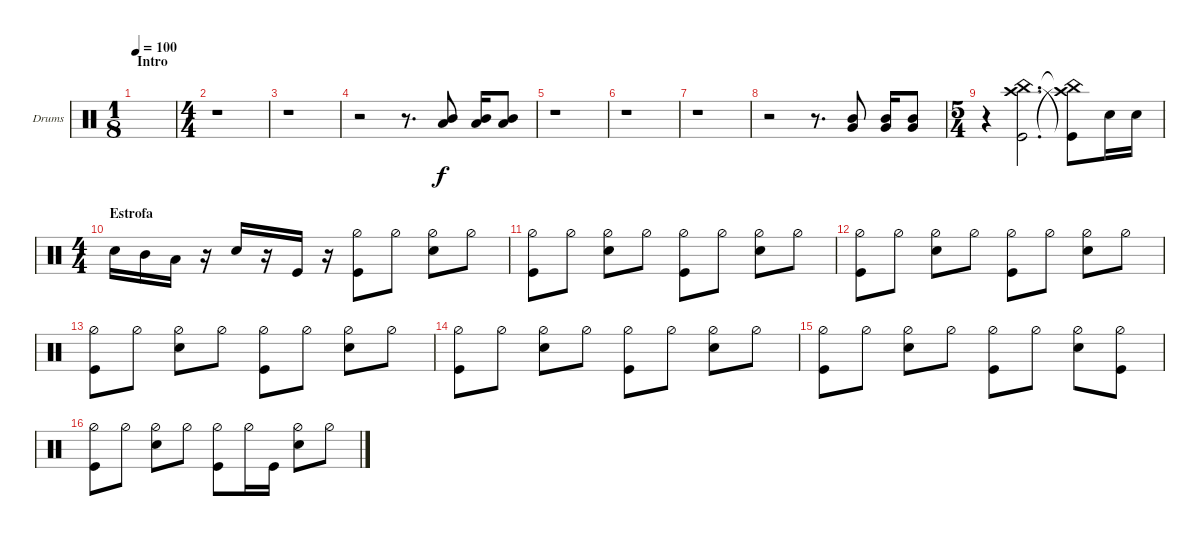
\defaultSystemsLayout 4
\bracketExtendMode groupsimilarinstruments
\firstSystemTrackNameOrientation horizontal
\otherSystemsTrackNameOrientation horizontal
\track ("Drumkit" "Drums") {instrument percussion}
\staff {score}
\articulation defaults
\ts (1 8)
\section ("" "Intro")
\tempo 100
\clef neutral
\ks c
|
\ts (4 4)
r.1 |
r.1 |
r.2 r.8{d} ("Mid Tom (hit)" "Low Tom (hit)").8 ("Mid Tom (hit)" "Low Tom (hit)").16 ("Mid Tom (hit)" "Low Tom (hit)").8 |
r.1 |
r.1 |
r.1 |
r.2 r.8{d} ("Mid Tom (hit)" "Very Low Tom (hit)").8 ("Mid Tom (hit)" "Very Low Tom (hit)").16 ("Mid Tom (hit)" "Very Low Tom (hit)").8 |
\ts (5 4)
r.4 ("Crash high (hit)" "Kick (hit)" "China (hit)").2{d} ("Kick (hit)"{t} "Crash high (hit)"{t} "China (hit)"{t}).8 "Snare (hit) 2".16 "Snare (hit) 2".16 |
\ts (4 4)
\section ("" "Estrofa")
"Snare (hit) 2".16{dy f} "Mid Tom (hit)".16 "Low Tom (hit)".16 r.16 "Snare (hit) 2".16 r.16 "Kick (hit)".16 r.16 ("Hi-Hat (half)" "Kick (hit)").8 "Hi-Hat (half)".8 ("Hi-Hat (half)" "Snare (hit) 2").8 "Hi-Hat (half)".8 |
("Hi-Hat (half)" "Kick (hit)").8 "Hi-Hat (half)".8 ("Hi-Hat (half)" "Snare (hit) 2").8 "Hi-Hat (half)".8 ("Hi-Hat (half)" "Kick (hit)").8 "Hi-Hat (half)".8 ("Hi-Hat (half)" "Snare (hit) 2").8 "Hi-Hat (half)".8 |
("Hi-Hat (half)" "Kick (hit)").8 "Hi-Hat (half)".8 ("Hi-Hat (half)" "Snare (hit) 2").8 "Hi-Hat (half)".8 ("Hi-Hat (half)" "Kick (hit)").8 "Hi-Hat (half)".8 ("Hi-Hat (half)" "Snare (hit) 2").8 "Hi-Hat (half)".8 |
("Hi-Hat (half)" "Kick (hit)").8 "Hi-Hat (half)".8 ("Hi-Hat (half)" "Snare (hit) 2").8 "Hi-Hat (half)".8 ("Hi-Hat (half)" "Kick (hit)").8 "Hi-Hat (half)".8 ("Hi-Hat (half)" "Snare (hit) 2").8 "Hi-Hat (half)".8 |
("Hi-Hat (half)" "Kick (hit)").8 "Hi-Hat (half)".8 ("Hi-Hat (half)" "Snare (hit) 2").8 "Hi-Hat (half)".8 ("Hi-Hat (half)" "Kick (hit)").8 "Hi-Hat (half)".8 ("Hi-Hat (half)" "Snare (hit) 2").8 "Hi-Hat (half)".8 |
("Hi-Hat (half)" "Kick (hit)").8 "Hi-Hat (half)".8 ("Hi-Hat (half)" "Snare (hit) 2").8 "Hi-Hat (half)".8 ("Hi-Hat (half)" "Kick (hit)").8 "Hi-Hat (half)".8 ("Hi-Hat (half)" "Snare (hit) 2").8 ("Hi-Hat (half)" "Kick (hit)").8 |
("Hi-Hat (half)" "Kick (hit)").8 "Hi-Hat (half)".8 ("Hi-Hat (half)" "Snare (hit) 2").8 "Hi-Hat (half)".8 ("Hi-Hat (half)" "Kick (hit)").8 "Hi-Hat (half)".16 "Kick (hit)".16 ("Hi-Hat (half)" "Snare (hit) 2").8 "Hi-Hat (half)".8
